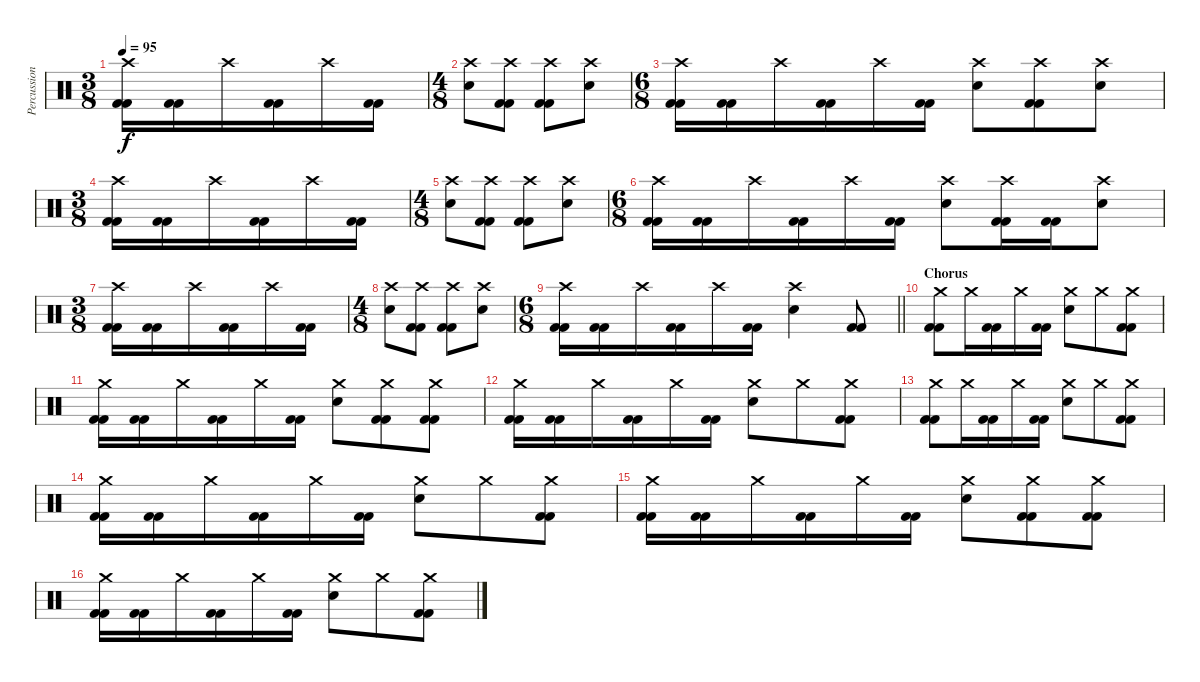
\track ("Percussion" "Percussion") {instrument percussion}
\staff {score}
\articulation defaults
\ts (3 8)
\tempo 95
\clef neutral
\ks c
("Crash high (hit)" "Kick (hit) 2" "Kick (hit) 2").16{dy f} ("Kick (hit) 2" "Kick (hit) 2").16 "Crash high (hit)".16 ("Kick (hit) 2" "Kick (hit) 2").16 "Crash high (hit)".16 ("Kick (hit) 2" "Kick (hit) 2").16 |
\ts (4 8)
("Crash high (hit)" "Electric Snare (hit)").8 ("Crash high (hit)" "Kick (hit) 2" "Kick (hit) 2").8 ("Crash high (hit)" "Kick (hit) 2" "Kick (hit) 2").8 ("Crash high (hit)" "Electric Snare (hit)").8 |
\ts (6 8)
("Crash high (hit)" "Kick (hit) 2" "Kick (hit) 2").16 ("Kick (hit) 2" "Kick (hit) 2").16 "Crash high (hit)".16 ("Kick (hit) 2" "Kick (hit) 2").16 "Crash high (hit)".16 ("Kick (hit) 2" "Kick (hit) 2").16 ("Crash high (hit)" "Electric Snare (hit)").8 ("Crash high (hit)" "Kick (hit) 2" "Kick (hit) 2").8 ("Crash high (hit)" "Electric Snare (hit)").8 |
\ts (3 8)
("Crash high (hit)" "Kick (hit) 2" "Kick (hit) 2").16 ("Kick (hit) 2" "Kick (hit) 2").16 "Crash high (hit)".16 ("Kick (hit) 2" "Kick (hit) 2").16 "Crash high (hit)".16 ("Kick (hit) 2" "Kick (hit) 2").16 |
\ts (4 8)
("Crash high (hit)" "Electric Snare (hit)").8 ("Crash high (hit)" "Kick (hit) 2" "Kick (hit) 2").8 ("Crash high (hit)" "Kick (hit) 2" "Kick (hit) 2").8 ("Crash high (hit)" "Electric Snare (hit)").8 |
\ts (6 8)
("Crash high (hit)" "Kick (hit) 2" "Kick (hit) 2").16 ("Kick (hit) 2" "Kick (hit) 2").16 "Crash high (hit)".16 ("Kick (hit) 2" "Kick (hit) 2").16 "Crash high (hit)".16 ("Kick (hit) 2" "Kick (hit) 2").16 ("Crash high (hit)" "Electric Snare (hit)").8 ("Crash high (hit)" "Kick (hit) 2" "Kick (hit) 2").16 ("Kick (hit) 2" "Kick (hit) 2").16 ("Crash high (hit)" "Electric Snare (hit)").8 |
\ts (3 8)
("Crash high (hit)" "Kick (hit) 2" "Kick (hit) 2").16 ("Kick (hit) 2" "Kick (hit) 2").16 "Crash high (hit)".16 ("Kick (hit) 2" "Kick (hit) 2").16 "Crash high (hit)".16 ("Kick (hit) 2" "Kick (hit) 2").16 |
\ts (4 8)
("Crash high (hit)" "Electric Snare (hit)").8 ("Crash high (hit)" "Kick (hit) 2" "Kick (hit) 2").8 ("Crash high (hit)" "Kick (hit) 2" "Kick (hit) 2").8 ("Crash high (hit)" "Electric Snare (hit)").8 |
\ts (6 8)
\barLineRight lightlight
("Crash high (hit)" "Kick (hit) 2" "Kick (hit) 2").16 ("Kick (hit) 2" "Kick (hit) 2").16 "Crash high (hit)".16 ("Kick (hit) 2" "Kick (hit) 2").16 "Crash high (hit)".16 ("Kick (hit) 2" "Kick (hit) 2").16 ("Crash high (hit)" "Electric Snare (hit)").4 ("Kick (hit) 2" "Kick (hit) 2").8 |
\section ("" "Chorus")
("Crash medium (hit)" "Kick (hit) 2" "Kick (hit) 2").8 "Crash medium (hit)".16 ("Kick (hit) 2" "Kick (hit) 2").16 "Crash medium (hit)".16 ("Kick (hit) 2" "Kick (hit) 2").16 ("Crash medium (hit)" "Electric Snare (hit)").8 "Crash medium (hit)".8 ("Crash medium (hit)" "Kick (hit) 2" "Kick (hit) 2").8 |
("Crash medium (hit)" "Kick (hit) 2" "Kick (hit) 2").16 ("Kick (hit) 2" "Kick (hit) 2").16 "Crash medium (hit)".16 ("Kick (hit) 2" "Kick (hit) 2").16 "Crash medium (hit)".16 ("Kick (hit) 2" "Kick (hit) 2").16 ("Crash medium (hit)" "Electric Snare (hit)").8 ("Crash medium (hit)" "Kick (hit) 2" "Kick (hit) 2").8 ("Crash medium (hit)" "Kick (hit) 2" "Kick (hit) 2").8 |
("Crash medium (hit)" "Kick (hit) 2" "Kick (hit) 2").16 ("Kick (hit) 2" "Kick (hit) 2").16 "Crash medium (hit)".16 ("Kick (hit) 2" "Kick (hit) 2").16 "Crash medium (hit)".16 ("Kick (hit) 2" "Kick (hit) 2").16 ("Crash medium (hit)" "Electric Snare (hit)").8 "Crash medium (hit)".8 ("Crash medium (hit)" "Kick (hit) 2" "Kick (hit) 2").8 |
("Crash medium (hit)" "Kick (hit) 2" "Kick (hit) 2").8 "Crash medium (hit)".16 ("Kick (hit) 2" "Kick (hit) 2").16 "Crash medium (hit)".16 ("Kick (hit) 2" "Kick (hit) 2").16 ("Crash medium (hit)" "Electric Snare (hit)").8 "Crash medium (hit)".8 ("Crash medium (hit)" "Kick (hit) 2" "Kick (hit) 2").8 |
("Crash medium (hit)" "Kick (hit) 2" "Kick (hit) 2").16 ("Kick (hit) 2" "Kick (hit) 2").16 "Crash medium (hit)".16 ("Kick (hit) 2" "Kick (hit) 2").16 "Crash medium (hit)".16 ("Kick (hit) 2" "Kick (hit) 2").16 ("Crash medium (hit)" "Electric Snare (hit)").8 "Crash medium (hit)".8 ("Crash medium (hit)" "Kick (hit) 2" "Kick (hit) 2").8 |
("Crash medium (hit)" "Kick (hit) 2" "Kick (hit) 2").16 ("Kick (hit) 2" "Kick (hit) 2").16 "Crash medium (hit)".16 ("Kick (hit) 2" "Kick (hit) 2").16 "Crash medium (hit)".16 ("Kick (hit) 2" "Kick (hit) 2").16 ("Crash medium (hit)" "Electric Snare (hit)").8 ("Crash medium (hit)" "Kick (hit) 2" "Kick (hit) 2").8 ("Crash medium (hit)" "Kick (hit) 2" "Kick (hit) 2").8 |
("Crash medium (hit)" "Kick (hit) 2" "Kick (hit) 2").16 ("Kick (hit) 2" "Kick (hit) 2").16 "Crash medium (hit)".16 ("Kick (hit) 2" "Kick (hit) 2").16 "Crash medium (hit)".16 ("Kick (hit) 2" "Kick (hit) 2").16 ("Crash medium (hit)" "Electric Snare (hit)").8 "Crash medium (hit)".8 ("Crash medium (hit)" "Kick (hit) 2" "Kick (hit) 2").8
